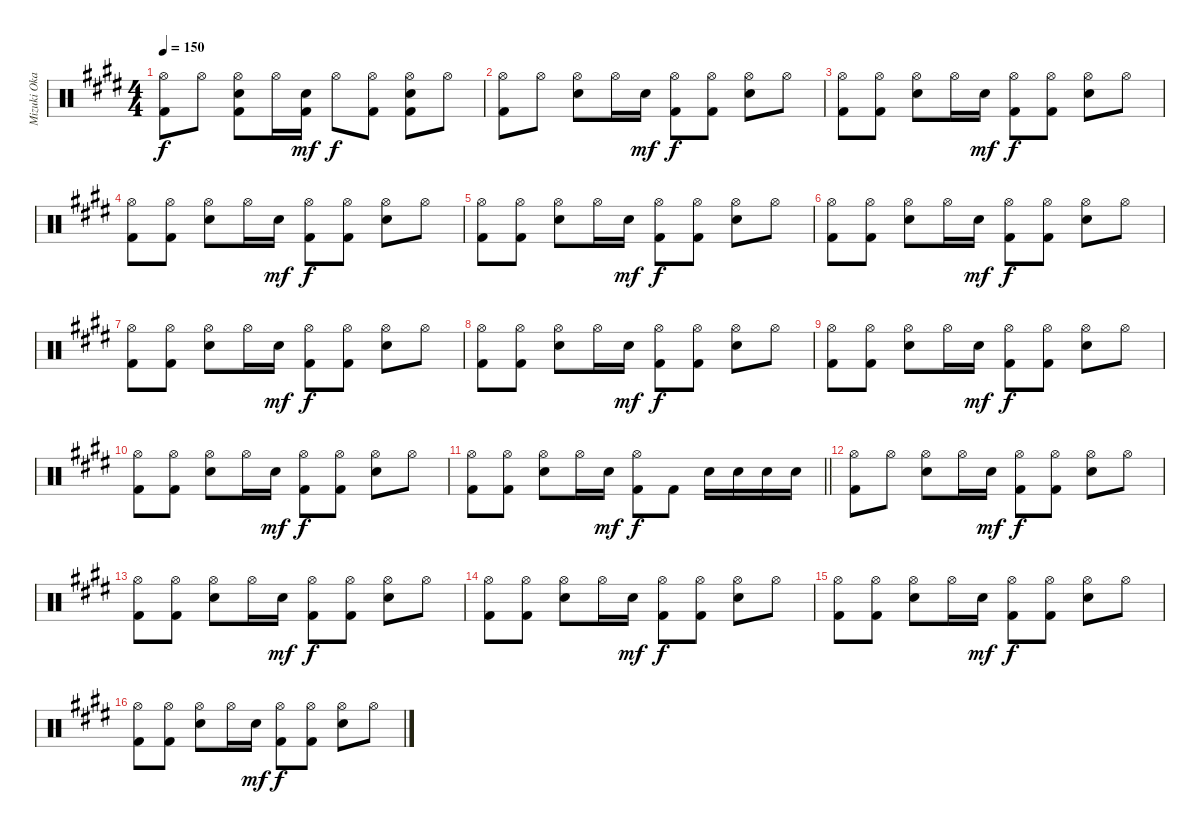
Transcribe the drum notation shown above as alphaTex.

\track ("Mizuki Okajima (Drums)" "Mizuki Oka") {instrument percussion}
\staff {score}
\articulation defaults
\ts (4 4)
\tempo 150
\clef neutral
\ks c#minor
("Hi-Hat (open)" "Kick (hit) 2").8{dy f} "Hi-Hat (open)".8 ("Hi-Hat (open)" "Snare (hit) 2" "Kick (hit) 2").8 "Hi-Hat (open)".16 ("Snare (hit) 2" "Kick (hit) 2").16{dy mf} "Hi-Hat (open)".8{dy f} ("Hi-Hat (open)" "Kick (hit) 2").8 ("Hi-Hat (open)" "Snare (hit) 2" "Kick (hit) 2").8 "Hi-Hat (open)".8 |
("Hi-Hat (open)" "Kick (hit) 2").8 "Hi-Hat (open)".8 ("Hi-Hat (open)" "Snare (hit) 2").8 "Hi-Hat (open)".16 "Snare (hit) 2".16{dy mf} ("Hi-Hat (open)" "Kick (hit) 2").8{dy f} ("Hi-Hat (open)" "Kick (hit) 2").8 ("Hi-Hat (open)" "Snare (hit) 2").8 "Hi-Hat (open)".8 |
("Hi-Hat (open)" "Kick (hit) 2").8 ("Hi-Hat (open)" "Kick (hit) 2").8 ("Hi-Hat (open)" "Snare (hit) 2").8 "Hi-Hat (open)".16 "Snare (hit) 2".16{dy mf} ("Hi-Hat (open)" "Kick (hit) 2").8{dy f} ("Hi-Hat (open)" "Kick (hit) 2").8 ("Hi-Hat (open)" "Snare (hit) 2").8 "Hi-Hat (open)".8 |
("Hi-Hat (open)" "Kick (hit) 2").8 ("Hi-Hat (open)" "Kick (hit) 2").8 ("Hi-Hat (open)" "Snare (hit) 2").8 "Hi-Hat (open)".16 "Snare (hit) 2".16{dy mf} ("Hi-Hat (open)" "Kick (hit) 2").8{dy f} ("Hi-Hat (open)" "Kick (hit) 2").8 ("Hi-Hat (open)" "Snare (hit) 2").8 "Hi-Hat (open)".8 |
("Hi-Hat (open)" "Kick (hit) 2").8 ("Hi-Hat (open)" "Kick (hit) 2").8 ("Hi-Hat (open)" "Snare (hit) 2").8 "Hi-Hat (open)".16 "Snare (hit) 2".16{dy mf} ("Hi-Hat (open)" "Kick (hit) 2").8{dy f} ("Hi-Hat (open)" "Kick (hit) 2").8 ("Hi-Hat (open)" "Snare (hit) 2").8 "Hi-Hat (open)".8 |
("Hi-Hat (open)" "Kick (hit) 2").8 ("Hi-Hat (open)" "Kick (hit) 2").8 ("Hi-Hat (open)" "Snare (hit) 2").8 "Hi-Hat (open)".16 "Snare (hit) 2".16{dy mf} ("Hi-Hat (open)" "Kick (hit) 2").8{dy f} ("Hi-Hat (open)" "Kick (hit) 2").8 ("Hi-Hat (open)" "Snare (hit) 2").8 "Hi-Hat (open)".8 |
("Hi-Hat (open)" "Kick (hit) 2").8 ("Hi-Hat (open)" "Kick (hit) 2").8 ("Hi-Hat (open)" "Snare (hit) 2").8 "Hi-Hat (open)".16 "Snare (hit) 2".16{dy mf} ("Hi-Hat (open)" "Kick (hit) 2").8{dy f} ("Hi-Hat (open)" "Kick (hit) 2").8 ("Hi-Hat (open)" "Snare (hit) 2").8 "Hi-Hat (open)".8 |
("Hi-Hat (open)" "Kick (hit) 2").8 ("Hi-Hat (open)" "Kick (hit) 2").8 ("Hi-Hat (open)" "Snare (hit) 2").8 "Hi-Hat (open)".16 "Snare (hit) 2".16{dy mf} ("Hi-Hat (open)" "Kick (hit) 2").8{dy f} ("Hi-Hat (open)" "Kick (hit) 2").8 ("Hi-Hat (open)" "Snare (hit) 2").8 "Hi-Hat (open)".8 |
("Hi-Hat (open)" "Kick (hit) 2").8 ("Hi-Hat (open)" "Kick (hit) 2").8 ("Hi-Hat (open)" "Snare (hit) 2").8 "Hi-Hat (open)".16 "Snare (hit) 2".16{dy mf} ("Hi-Hat (open)" "Kick (hit) 2").8{dy f} ("Hi-Hat (open)" "Kick (hit) 2").8 ("Hi-Hat (open)" "Snare (hit) 2").8 "Hi-Hat (open)".8 |
("Hi-Hat (open)" "Kick (hit) 2").8 ("Hi-Hat (open)" "Kick (hit) 2").8 ("Hi-Hat (open)" "Snare (hit) 2").8 "Hi-Hat (open)".16 "Snare (hit) 2".16{dy mf} ("Hi-Hat (open)" "Kick (hit) 2").8{dy f} ("Hi-Hat (open)" "Kick (hit) 2").8 ("Hi-Hat (open)" "Snare (hit) 2").8 "Hi-Hat (open)".8 |
\barLineRight lightlight
("Hi-Hat (open)" "Kick (hit) 2").8 ("Hi-Hat (open)" "Kick (hit) 2").8 ("Hi-Hat (open)" "Snare (hit) 2").8 "Hi-Hat (open)".16 "Snare (hit) 2".16{dy mf} ("Hi-Hat (open)" "Kick (hit) 2").8{dy f} "Kick (hit) 2".8 "Snare (hit) 2".16 "Snare (hit) 2".16 "Snare (hit) 2".16 "Snare (hit) 2".16 |
("Hi-Hat (open)" "Kick (hit) 2").8 "Hi-Hat (open)".8 ("Hi-Hat (open)" "Snare (hit) 2").8 "Hi-Hat (open)".16 "Snare (hit) 2".16{dy mf} ("Hi-Hat (open)" "Kick (hit) 2").8{dy f} ("Hi-Hat (open)" "Kick (hit) 2").8 ("Hi-Hat (open)" "Snare (hit) 2").8 "Hi-Hat (open)".8 |
("Hi-Hat (open)" "Kick (hit) 2").8 ("Hi-Hat (open)" "Kick (hit) 2").8 ("Hi-Hat (open)" "Snare (hit) 2").8 "Hi-Hat (open)".16 "Snare (hit) 2".16{dy mf} ("Hi-Hat (open)" "Kick (hit) 2").8{dy f} ("Hi-Hat (open)" "Kick (hit) 2").8 ("Hi-Hat (open)" "Snare (hit) 2").8 "Hi-Hat (open)".8 |
("Hi-Hat (open)" "Kick (hit) 2").8 ("Hi-Hat (open)" "Kick (hit) 2").8 ("Hi-Hat (open)" "Snare (hit) 2").8 "Hi-Hat (open)".16 "Snare (hit) 2".16{dy mf} ("Hi-Hat (open)" "Kick (hit) 2").8{dy f} ("Hi-Hat (open)" "Kick (hit) 2").8 ("Hi-Hat (open)" "Snare (hit) 2").8 "Hi-Hat (open)".8 |
("Hi-Hat (open)" "Kick (hit) 2").8 ("Hi-Hat (open)" "Kick (hit) 2").8 ("Hi-Hat (open)" "Snare (hit) 2").8 "Hi-Hat (open)".16 "Snare (hit) 2".16{dy mf} ("Hi-Hat (open)" "Kick (hit) 2").8{dy f} ("Hi-Hat (open)" "Kick (hit) 2").8 ("Hi-Hat (open)" "Snare (hit) 2").8 "Hi-Hat (open)".8 |
("Hi-Hat (open)" "Kick (hit) 2").8 ("Hi-Hat (open)" "Kick (hit) 2").8 ("Hi-Hat (open)" "Snare (hit) 2").8 "Hi-Hat (open)".16 "Snare (hit) 2".16{dy mf} ("Hi-Hat (open)" "Kick (hit) 2").8{dy f} ("Hi-Hat (open)" "Kick (hit) 2").8 ("Hi-Hat (open)" "Snare (hit) 2").8 "Hi-Hat (open)".8
